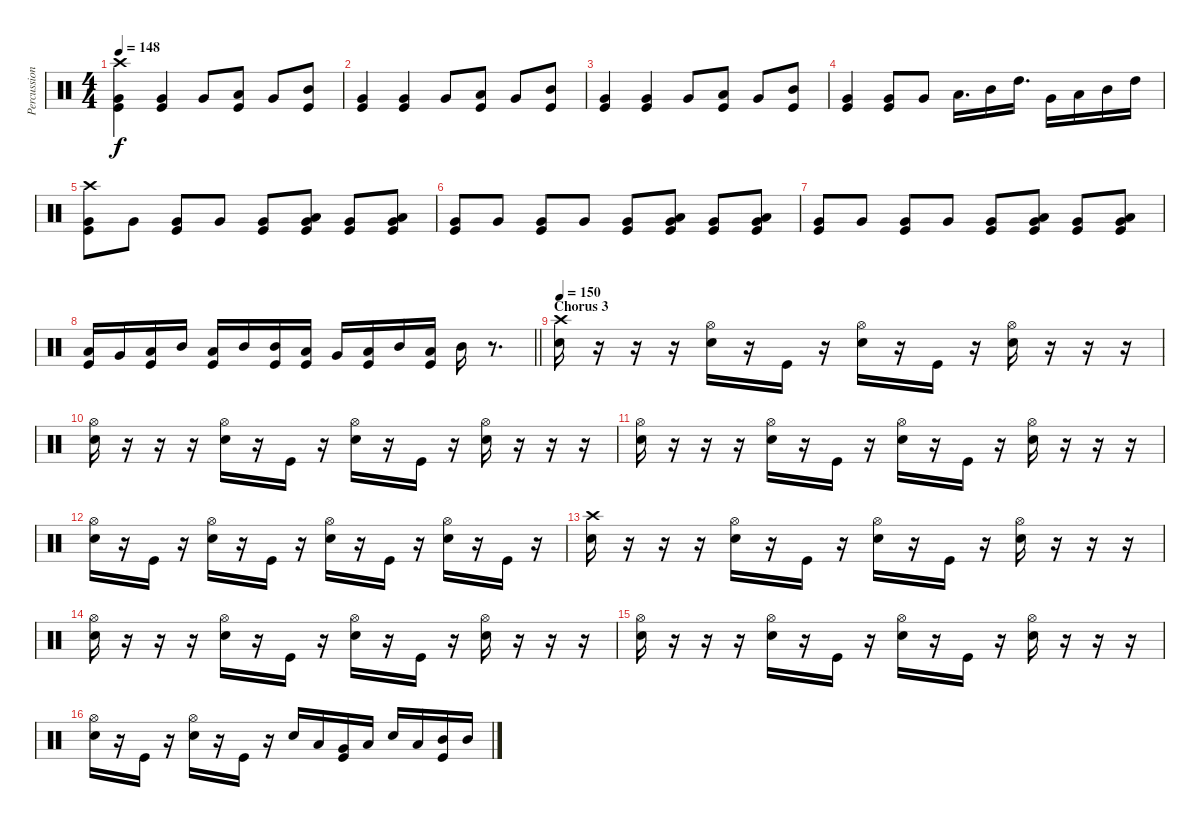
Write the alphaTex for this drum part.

\track ("Percussion" "Percussion") {instrument percussion}
\staff {score}
\articulation defaults
\ts (4 4)
\tempo 148
\clef neutral
\ks c
("Crash high (hit)" "Very Low Tom (hit)" "Kick (hit)").4{dy f} ("Very Low Tom (hit)" "Kick (hit)").4 "Very Low Tom (hit)".8 ("Low Tom (hit)" "Kick (hit)").8 "Very Low Tom (hit)".8 ("Mid Tom (hit)" "Kick (hit)").8 |
("Very Low Tom (hit)" "Kick (hit)").4 ("Very Low Tom (hit)" "Kick (hit)").4 "Very Low Tom (hit)".8 ("Low Tom (hit)" "Kick (hit)").8 "Very Low Tom (hit)".8 ("Mid Tom (hit)" "Kick (hit)").8 |
("Very Low Tom (hit)" "Kick (hit)").4 ("Very Low Tom (hit)" "Kick (hit)").4 "Very Low Tom (hit)".8 ("Low Tom (hit)" "Kick (hit)").8 "Very Low Tom (hit)".8 ("Mid Tom (hit)" "Kick (hit)").8 |
("Very Low Tom (hit)" "Kick (hit)").4 ("Very Low Tom (hit)" "Kick (hit)").8 "Very Low Tom (hit)".8 "Low Tom (hit)".16{d} "Mid Tom (hit)".16 "High Tom (hit)".16{d} "Very Low Tom (hit)".16 "Low Tom (hit)".16 "Mid Tom (hit)".16 "High Tom (hit)".16 |
("Crash high (hit)" "Very Low Tom (hit)" "Kick (hit)").8 "Very Low Tom (hit)".8 ("Very Low Tom (hit)" "Kick (hit)").8 "Very Low Tom (hit)".8 ("Very Low Tom (hit)" "Kick (hit)").8 ("Low Tom (hit)" "Very Low Tom (hit)" "Kick (hit)").8 ("Very Low Tom (hit)" "Kick (hit)").8 ("Low Tom (hit)" "Very Low Tom (hit)" "Kick (hit)").8 |
("Very Low Tom (hit)" "Kick (hit)").8 "Very Low Tom (hit)".8 ("Very Low Tom (hit)" "Kick (hit)").8 "Very Low Tom (hit)".8 ("Very Low Tom (hit)" "Kick (hit)").8 ("Low Tom (hit)" "Very Low Tom (hit)" "Kick (hit)").8 ("Very Low Tom (hit)" "Kick (hit)").8 ("Low Tom (hit)" "Very Low Tom (hit)" "Kick (hit)").8 |
("Very Low Tom (hit)" "Kick (hit)").8 "Very Low Tom (hit)".8 ("Very Low Tom (hit)" "Kick (hit)").8 "Very Low Tom (hit)".8 ("Very Low Tom (hit)" "Kick (hit)").8 ("Low Tom (hit)" "Very Low Tom (hit)" "Kick (hit)").8 ("Very Low Tom (hit)" "Kick (hit)").8 ("Low Tom (hit)" "Very Low Tom (hit)" "Kick (hit)").8 |
\barLineRight lightlight
("Low Floor Tom (hit)" "Kick (hit)").16 "Very Low Tom (hit)".16 ("Low Tom (hit)" "Kick (hit)").16 "Mid Tom (hit)".16 ("Low Tom (hit)" "Kick (hit)").16 "Mid Tom (hit)".16 ("Mid Tom (hit)" "Kick (hit)").16 ("Low Floor Tom (hit)" "Kick (hit)").16 "Very Low Tom (hit)".16 ("Low Tom (hit)" "Kick (hit)").16 "Mid Tom (hit)".16 ("Low Tom (hit)" "Kick (hit)").16 "Mid Tom (hit)".16 r.8{d} |
\section ("" "Chorus 3")
\tempo 150
("Crash high (hit)" "Snare (hit) 2").16 r.16 r.16 r.16 ("Hi-Hat (open)" "Snare (hit) 2").16 r.16 "Kick (hit)".16 r.16 ("Hi-Hat (open)" "Snare (hit) 2").16 r.16 "Kick (hit)".16 r.16 ("Hi-Hat (open)" "Snare (hit) 2").16 r.16 r.16 r.16 |
("Hi-Hat (open)" "Snare (hit) 2").16 r.16 r.16 r.16 ("Hi-Hat (open)" "Snare (hit) 2").16 r.16 "Kick (hit)".16 r.16 ("Hi-Hat (open)" "Snare (hit) 2").16 r.16 "Kick (hit)".16 r.16 ("Hi-Hat (open)" "Snare (hit) 2").16 r.16 r.16 r.16 |
("Hi-Hat (open)" "Snare (hit) 2").16 r.16 r.16 r.16 ("Hi-Hat (open)" "Snare (hit) 2").16 r.16 "Kick (hit)".16 r.16 ("Hi-Hat (open)" "Snare (hit) 2").16 r.16 "Kick (hit)".16 r.16 ("Hi-Hat (open)" "Snare (hit) 2").16 r.16 r.16 r.16 |
("Hi-Hat (open)" "Snare (hit) 2").16 r.16 "Kick (hit)".16 r.16 ("Hi-Hat (open)" "Snare (hit) 2").16 r.16 "Kick (hit)".16 r.16 ("Hi-Hat (open)" "Snare (hit) 2").16 r.16 "Kick (hit)".16 r.16 ("Hi-Hat (open)" "Snare (hit) 2").16 r.16 "Kick (hit)".16 r.16 |
("Crash high (hit)" "Snare (hit) 2").16 r.16 r.16 r.16 ("Hi-Hat (open)" "Snare (hit) 2").16 r.16 "Kick (hit)".16 r.16 ("Hi-Hat (open)" "Snare (hit) 2").16 r.16 "Kick (hit)".16 r.16 ("Hi-Hat (open)" "Snare (hit) 2").16 r.16 r.16 r.16 |
("Hi-Hat (open)" "Snare (hit) 2").16 r.16 r.16 r.16 ("Hi-Hat (open)" "Snare (hit) 2").16 r.16 "Kick (hit)".16 r.16 ("Hi-Hat (open)" "Snare (hit) 2").16 r.16 "Kick (hit)".16 r.16 ("Hi-Hat (open)" "Snare (hit) 2").16 r.16 r.16 r.16 |
("Hi-Hat (open)" "Snare (hit) 2").16 r.16 r.16 r.16 ("Hi-Hat (open)" "Snare (hit) 2").16 r.16 "Kick (hit)".16 r.16 ("Hi-Hat (open)" "Snare (hit) 2").16 r.16 "Kick (hit)".16 r.16 ("Hi-Hat (open)" "Snare (hit) 2").16 r.16 r.16 r.16 |
("Hi-Hat (open)" "Snare (hit) 2").16 r.16 "Kick (hit)".16 r.16 ("Hi-Hat (open)" "Snare (hit) 2").16 r.16 "Kick (hit)".16 r.16 "Snare (hit) 2".16 "Low Floor Tom (hit)".16 ("Very Low Tom (hit)" "Kick (hit)").16 "Low Tom (hit)".16 "Snare (hit) 2".16 "Low Tom (hit)".16 ("Mid Tom (hit)" "Kick (hit)").16 "Mid Tom (hit)".16
